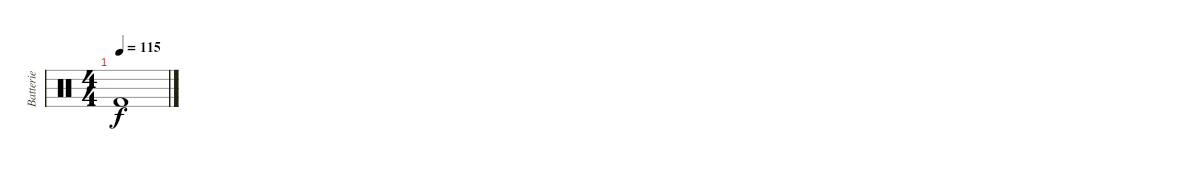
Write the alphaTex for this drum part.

\track ("Batterie" "Batterie") {instrument percussion}
\staff {score}
\articulation defaults
\ts (4 4)
\tempo 115
\clef neutral
\ks c "Kick (hit) 2".1{dy f}
